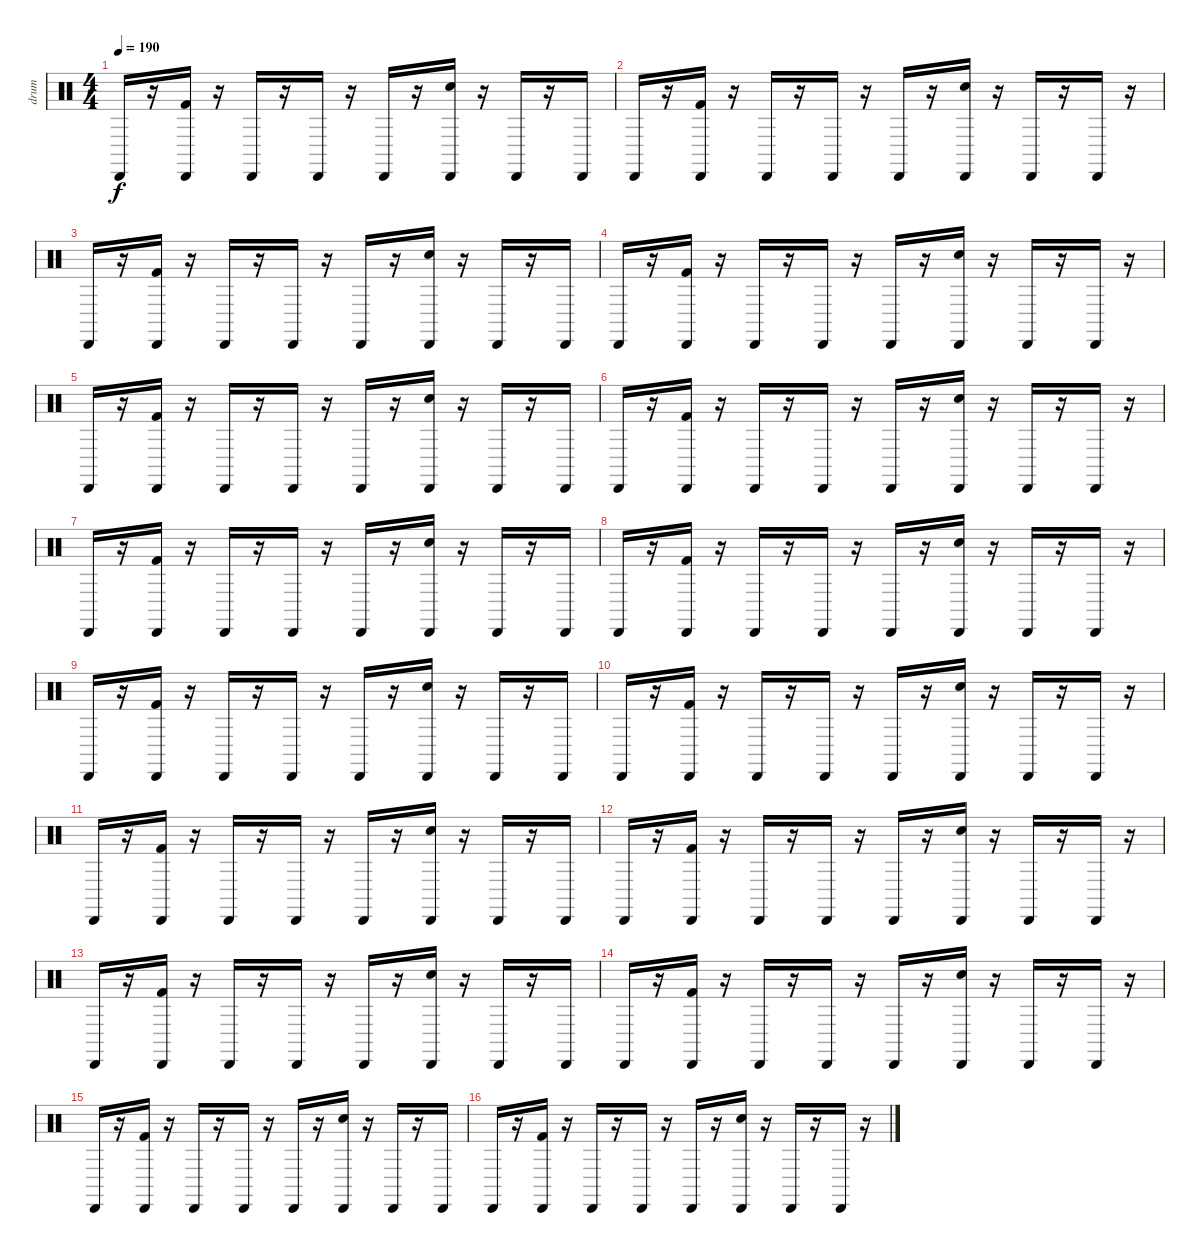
\track ("drum" "drum") {instrument percussion}
\staff {score}
\articulation defaults
\ts (4 4)
\tempo 190
\clef neutral
\ks c "Cabasa (hit)".16{dy f}
r.16 ("Cabasa (hit)" "Kick (hit) 2").16 r.16 "Cabasa (hit)".16 r.16 "Cabasa (hit)".16 r.16 "Cabasa (hit)".16 r.16 ("Cabasa (hit)" "Snare (hit) 2").16 r.16 "Cabasa (hit)".16 r.16 "Cabasa (hit)".16 |
"Cabasa (hit)".16 r.16 ("Cabasa (hit)" "Kick (hit) 2").16 r.16 "Cabasa (hit)".16 r.16 "Cabasa (hit)".16 r.16 "Cabasa (hit)".16 r.16 ("Cabasa (hit)" "Snare (hit) 2").16 r.16 "Cabasa (hit)".16 r.16 "Cabasa (hit)".16 r.16 |
"Cabasa (hit)".16 r.16 ("Cabasa (hit)" "Kick (hit) 2").16 r.16 "Cabasa (hit)".16 r.16 "Cabasa (hit)".16 r.16 "Cabasa (hit)".16 r.16 ("Cabasa (hit)" "Snare (hit) 2").16 r.16 "Cabasa (hit)".16 r.16 "Cabasa (hit)".16 |
"Cabasa (hit)".16 r.16 ("Cabasa (hit)" "Kick (hit) 2").16 r.16 "Cabasa (hit)".16 r.16 "Cabasa (hit)".16 r.16 "Cabasa (hit)".16 r.16 ("Cabasa (hit)" "Snare (hit) 2").16 r.16 "Cabasa (hit)".16 r.16 "Cabasa (hit)".16 r.16 |
"Cabasa (hit)".16 r.16 ("Cabasa (hit)" "Kick (hit) 2").16 r.16 "Cabasa (hit)".16 r.16 "Cabasa (hit)".16 r.16 "Cabasa (hit)".16 r.16 ("Cabasa (hit)" "Snare (hit) 2").16 r.16 "Cabasa (hit)".16 r.16 "Cabasa (hit)".16 |
"Cabasa (hit)".16 r.16 ("Cabasa (hit)" "Kick (hit) 2").16 r.16 "Cabasa (hit)".16 r.16 "Cabasa (hit)".16 r.16 "Cabasa (hit)".16 r.16 ("Cabasa (hit)" "Snare (hit) 2").16 r.16 "Cabasa (hit)".16 r.16 "Cabasa (hit)".16 r.16 |
"Cabasa (hit)".16 r.16 ("Cabasa (hit)" "Kick (hit) 2").16 r.16 "Cabasa (hit)".16 r.16 "Cabasa (hit)".16 r.16 "Cabasa (hit)".16 r.16 ("Cabasa (hit)" "Snare (hit) 2").16 r.16 "Cabasa (hit)".16 r.16 "Cabasa (hit)".16 |
"Cabasa (hit)".16 r.16 ("Cabasa (hit)" "Kick (hit) 2").16 r.16 "Cabasa (hit)".16 r.16 "Cabasa (hit)".16 r.16 "Cabasa (hit)".16 r.16 ("Cabasa (hit)" "Snare (hit) 2").16 r.16 "Cabasa (hit)".16 r.16 "Cabasa (hit)".16 r.16 |
"Cabasa (hit)".16 r.16 ("Cabasa (hit)" "Kick (hit) 2").16 r.16 "Cabasa (hit)".16 r.16 "Cabasa (hit)".16 r.16 "Cabasa (hit)".16 r.16 ("Cabasa (hit)" "Snare (hit) 2").16 r.16 "Cabasa (hit)".16 r.16 "Cabasa (hit)".16 |
"Cabasa (hit)".16 r.16 ("Cabasa (hit)" "Kick (hit) 2").16 r.16 "Cabasa (hit)".16 r.16 "Cabasa (hit)".16 r.16 "Cabasa (hit)".16 r.16 ("Cabasa (hit)" "Snare (hit) 2").16 r.16 "Cabasa (hit)".16 r.16 "Cabasa (hit)".16 r.16 |
"Cabasa (hit)".16 r.16 ("Cabasa (hit)" "Kick (hit) 2").16 r.16 "Cabasa (hit)".16 r.16 "Cabasa (hit)".16 r.16 "Cabasa (hit)".16 r.16 ("Cabasa (hit)" "Snare (hit) 2").16 r.16 "Cabasa (hit)".16 r.16 "Cabasa (hit)".16 |
"Cabasa (hit)".16 r.16 ("Cabasa (hit)" "Kick (hit) 2").16 r.16 "Cabasa (hit)".16 r.16 "Cabasa (hit)".16 r.16 "Cabasa (hit)".16 r.16 ("Cabasa (hit)" "Snare (hit) 2").16 r.16 "Cabasa (hit)".16 r.16 "Cabasa (hit)".16 r.16 |
"Cabasa (hit)".16 r.16 ("Cabasa (hit)" "Kick (hit) 2").16 r.16 "Cabasa (hit)".16 r.16 "Cabasa (hit)".16 r.16 "Cabasa (hit)".16 r.16 ("Cabasa (hit)" "Snare (hit) 2").16 r.16 "Cabasa (hit)".16 r.16 "Cabasa (hit)".16 |
"Cabasa (hit)".16 r.16 ("Cabasa (hit)" "Kick (hit) 2").16 r.16 "Cabasa (hit)".16 r.16 "Cabasa (hit)".16 r.16 "Cabasa (hit)".16 r.16 ("Cabasa (hit)" "Snare (hit) 2").16 r.16 "Cabasa (hit)".16 r.16 "Cabasa (hit)".16 r.16 |
"Cabasa (hit)".16 r.16 ("Cabasa (hit)" "Kick (hit) 2").16 r.16 "Cabasa (hit)".16 r.16 "Cabasa (hit)".16 r.16 "Cabasa (hit)".16 r.16 ("Cabasa (hit)" "Snare (hit) 2").16 r.16 "Cabasa (hit)".16 r.16 "Cabasa (hit)".16 |
"Cabasa (hit)".16 r.16 ("Cabasa (hit)" "Kick (hit) 2").16 r.16 "Cabasa (hit)".16 r.16 "Cabasa (hit)".16 r.16 "Cabasa (hit)".16 r.16 ("Cabasa (hit)" "Snare (hit) 2").16 r.16 "Cabasa (hit)".16 r.16 "Cabasa (hit)".16 r.16
